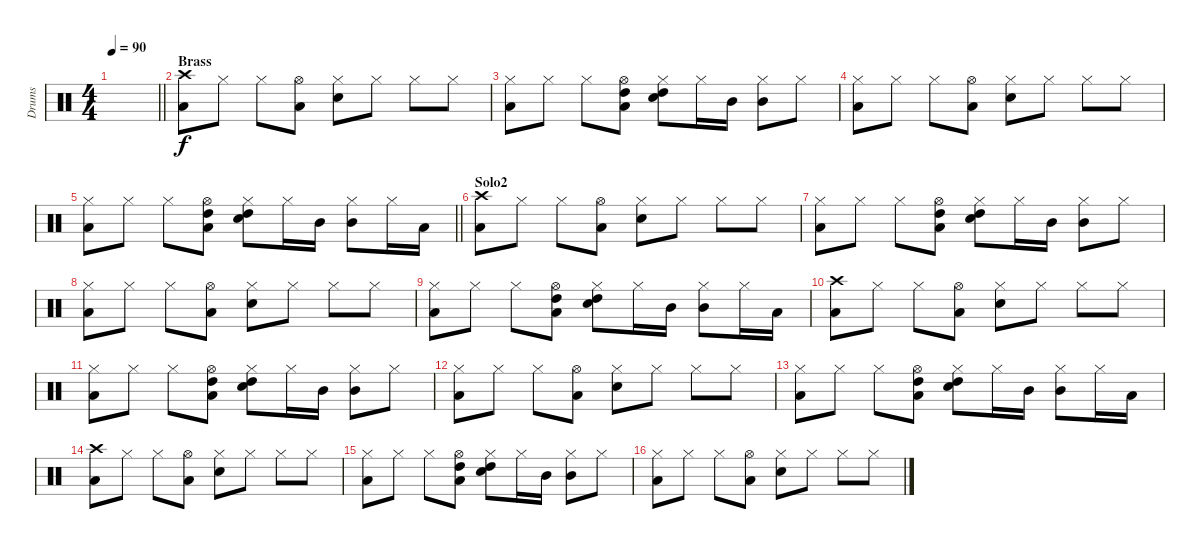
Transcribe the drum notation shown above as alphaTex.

\track ("Drums" "Drums") {instrument percussion}
\staff {score}
\articulation defaults
\ts (4 4)
\tempo 90
\clef neutral
\barLineRight lightlight
\ks c
|
\section ("" "Brass")
("Crash high (hit)" "Low Tom (hit)").8 "Hi-Hat (closed)".8 "Hi-Hat (closed)".8 ("Hi-Hat (open)" "Low Tom (hit)").8 ("Hi-Hat (closed)" "Snare (hit) 2").8 "Hi-Hat (closed)".8 "Hi-Hat (closed)".8 "Hi-Hat (closed)".8 |
("Hi-Hat (closed)" "Low Tom (hit)").8 "Hi-Hat (closed)".8 "Hi-Hat (closed)".8 ("Hi-Hat (open)" "High Tom (hit)" "Low Tom (hit)").8 ("Hi-Hat (closed)" "High Tom (hit)" "Snare (hit) 2").8 "Hi-Hat (closed)".16 "Mid Tom (hit)".16 ("Hi-Hat (closed)" "Mid Tom (hit)").8 "Hi-Hat (closed)".8 |
("Hi-Hat (closed)" "Low Tom (hit)").8 "Hi-Hat (closed)".8 "Hi-Hat (closed)".8 ("Hi-Hat (open)" "Low Tom (hit)").8 ("Hi-Hat (closed)" "Snare (hit) 2").8 "Hi-Hat (closed)".8 "Hi-Hat (closed)".8 "Hi-Hat (closed)".8 |
\barLineRight lightlight
("Hi-Hat (closed)" "Low Tom (hit)").8 "Hi-Hat (closed)".8 "Hi-Hat (closed)".8 ("Hi-Hat (open)" "High Tom (hit)" "Low Tom (hit)").8 ("Hi-Hat (closed)" "High Tom (hit)" "Snare (hit) 2").8 "Hi-Hat (closed)".16 "Mid Tom (hit)".16 ("Hi-Hat (closed)" "Mid Tom (hit)").8 "Hi-Hat (closed)".16 "Low Tom (hit)".16 |
\section ("" "Solo2")
("Crash high (hit)" "Low Tom (hit)").8 "Hi-Hat (closed)".8 "Hi-Hat (closed)".8 ("Hi-Hat (open)" "Low Tom (hit)").8 ("Hi-Hat (closed)" "Snare (hit) 2").8 "Hi-Hat (closed)".8 "Hi-Hat (closed)".8 "Hi-Hat (closed)".8 |
("Hi-Hat (closed)" "Low Tom (hit)").8 "Hi-Hat (closed)".8 "Hi-Hat (closed)".8 ("Hi-Hat (open)" "High Tom (hit)" "Low Tom (hit)").8 ("Hi-Hat (closed)" "High Tom (hit)" "Snare (hit) 2").8 "Hi-Hat (closed)".16 "Mid Tom (hit)".16 ("Hi-Hat (closed)" "Mid Tom (hit)").8 "Hi-Hat (closed)".8 |
("Hi-Hat (closed)" "Low Tom (hit)").8 "Hi-Hat (closed)".8 "Hi-Hat (closed)".8 ("Hi-Hat (open)" "Low Tom (hit)").8 ("Hi-Hat (closed)" "Snare (hit) 2").8 "Hi-Hat (closed)".8 "Hi-Hat (closed)".8 "Hi-Hat (closed)".8 |
("Hi-Hat (closed)" "Low Tom (hit)").8 "Hi-Hat (closed)".8 "Hi-Hat (closed)".8 ("Hi-Hat (open)" "High Tom (hit)" "Low Tom (hit)").8 ("Hi-Hat (closed)" "High Tom (hit)" "Snare (hit) 2").8 "Hi-Hat (closed)".16 "Mid Tom (hit)".16 ("Hi-Hat (closed)" "Mid Tom (hit)").8 "Hi-Hat (closed)".16 "Low Tom (hit)".16 |
("Crash high (hit)" "Low Tom (hit)").8 "Hi-Hat (closed)".8 "Hi-Hat (closed)".8 ("Hi-Hat (open)" "Low Tom (hit)").8 ("Hi-Hat (closed)" "Snare (hit) 2").8 "Hi-Hat (closed)".8 "Hi-Hat (closed)".8 "Hi-Hat (closed)".8 |
("Hi-Hat (closed)" "Low Tom (hit)").8 "Hi-Hat (closed)".8 "Hi-Hat (closed)".8 ("Hi-Hat (open)" "High Tom (hit)" "Low Tom (hit)").8 ("Hi-Hat (closed)" "High Tom (hit)" "Snare (hit) 2").8 "Hi-Hat (closed)".16 "Mid Tom (hit)".16 ("Hi-Hat (closed)" "Mid Tom (hit)").8 "Hi-Hat (closed)".8 |
("Hi-Hat (closed)" "Low Tom (hit)").8 "Hi-Hat (closed)".8 "Hi-Hat (closed)".8 ("Hi-Hat (open)" "Low Tom (hit)").8 ("Hi-Hat (closed)" "Snare (hit) 2").8 "Hi-Hat (closed)".8 "Hi-Hat (closed)".8 "Hi-Hat (closed)".8 |
("Hi-Hat (closed)" "Low Tom (hit)").8 "Hi-Hat (closed)".8 "Hi-Hat (closed)".8 ("Hi-Hat (open)" "High Tom (hit)" "Low Tom (hit)").8 ("Hi-Hat (closed)" "High Tom (hit)" "Snare (hit) 2").8 "Hi-Hat (closed)".16 "Mid Tom (hit)".16 ("Hi-Hat (closed)" "Mid Tom (hit)").8 "Hi-Hat (closed)".16 "Low Tom (hit)".16 |
("Crash high (hit)" "Low Tom (hit)").8 "Hi-Hat (closed)".8 "Hi-Hat (closed)".8 ("Hi-Hat (open)" "Low Tom (hit)").8 ("Hi-Hat (closed)" "Snare (hit) 2").8 "Hi-Hat (closed)".8 "Hi-Hat (closed)".8 "Hi-Hat (closed)".8 |
("Hi-Hat (closed)" "Low Tom (hit)").8 "Hi-Hat (closed)".8 "Hi-Hat (closed)".8 ("Hi-Hat (open)" "High Tom (hit)" "Low Tom (hit)").8 ("Hi-Hat (closed)" "High Tom (hit)" "Snare (hit) 2").8 "Hi-Hat (closed)".16 "Mid Tom (hit)".16 ("Hi-Hat (closed)" "Mid Tom (hit)").8 "Hi-Hat (closed)".8 |
("Hi-Hat (closed)" "Low Tom (hit)").8 "Hi-Hat (closed)".8 "Hi-Hat (closed)".8 ("Hi-Hat (open)" "Low Tom (hit)").8 ("Hi-Hat (closed)" "Snare (hit) 2").8 "Hi-Hat (closed)".8 "Hi-Hat (closed)".8 "Hi-Hat (closed)".8
